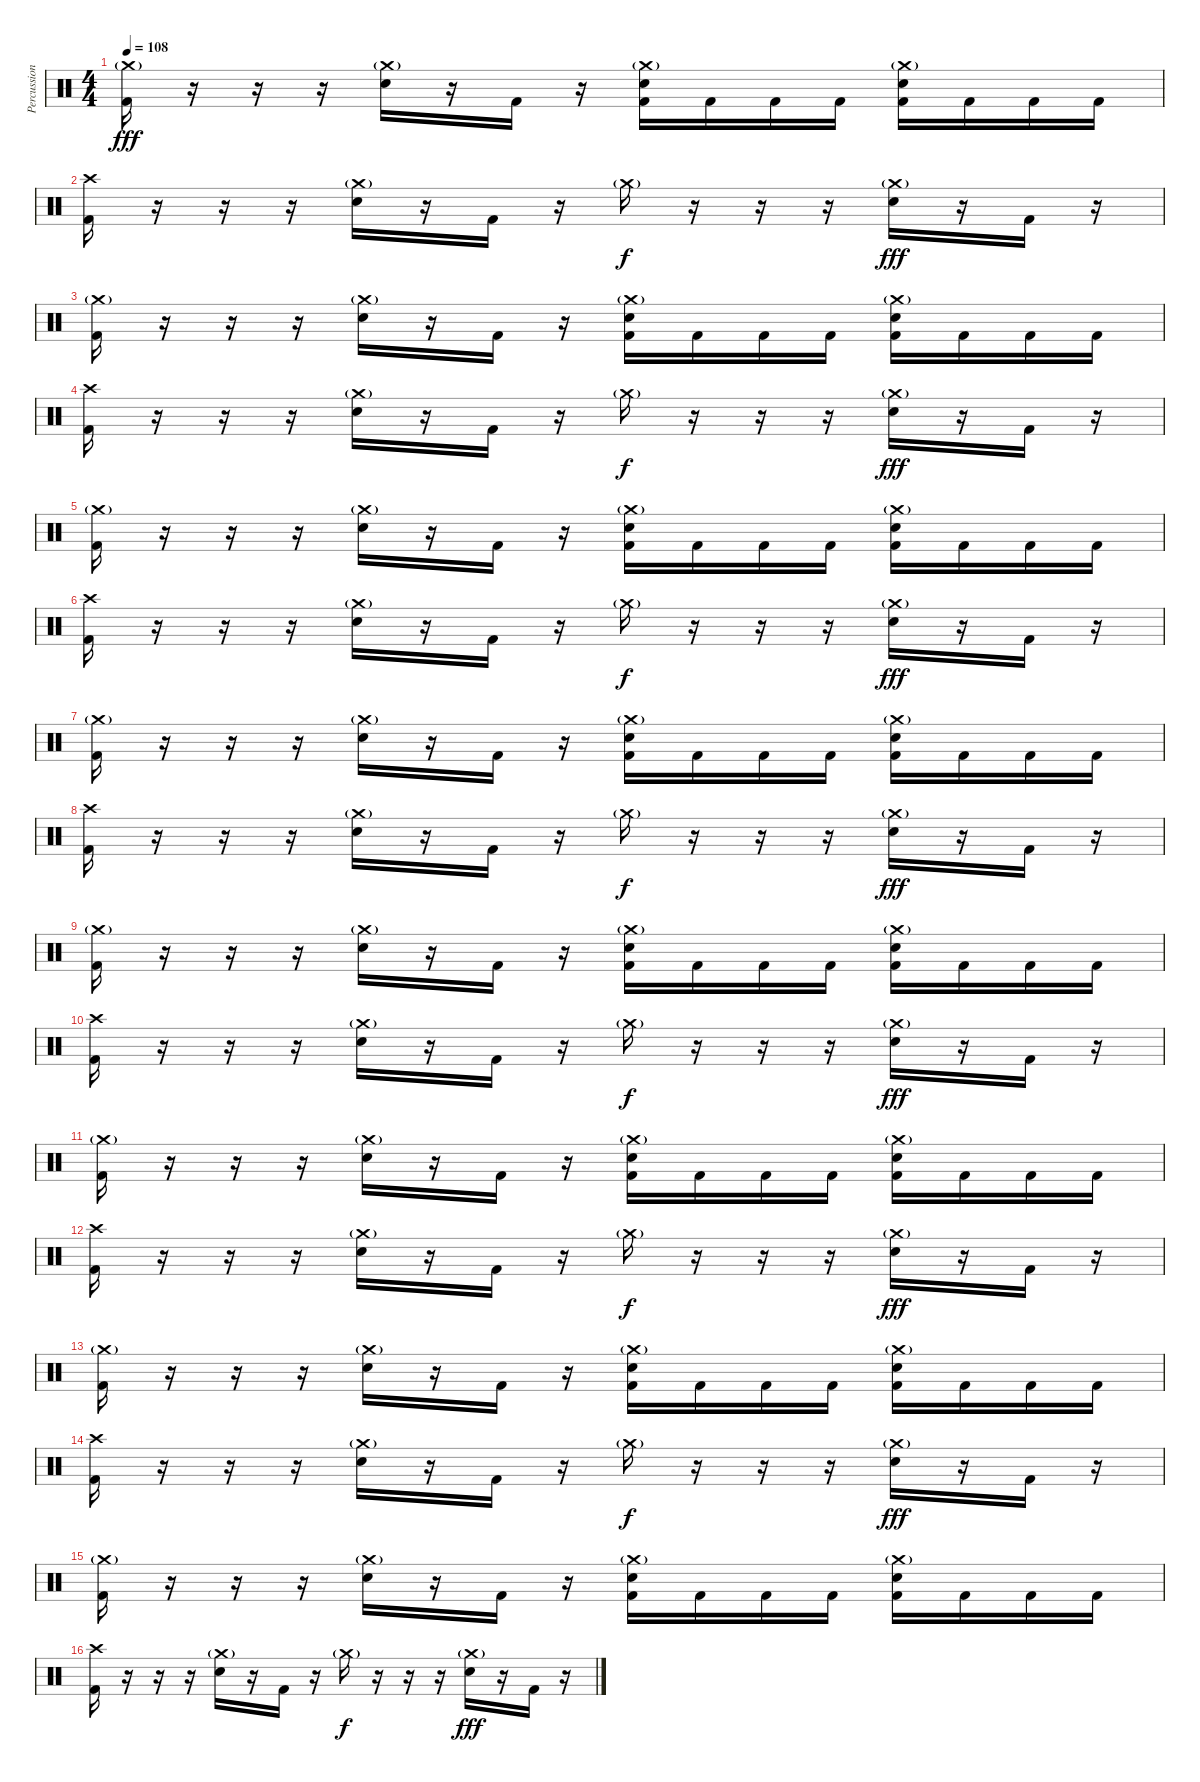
\track ("Percussion" "Percussion") {instrument percussion}
\staff {score}
\articulation defaults
\ts (4 4)
\tempo 108
\clef neutral
\ks c
("Crash medium (hit)"{g} "Kick (hit) 2").16{dy fff} r.16 r.16 r.16 ("Crash medium (hit)"{g} "Electric Snare (hit)").16 r.16 "Kick (hit) 2".16 r.16 ("Crash medium (hit)"{g} "Electric Snare (hit)" "Kick (hit) 2").16 "Kick (hit) 2".16 "Kick (hit) 2".16 "Kick (hit) 2".16 ("Crash medium (hit)"{g} "Electric Snare (hit)" "Kick (hit) 2").16 "Kick (hit) 2".16 "Kick (hit) 2".16 "Kick (hit) 2".16 |
("Crash high (hit)" "Kick (hit) 2").16 r.16 r.16 r.16 ("Crash medium (hit)"{g} "Electric Snare (hit)").16 r.16 "Kick (hit) 2".16 r.16 "Crash medium (hit)"{g}.16{dy f} r.16 r.16 r.16 ("Crash medium (hit)"{g} "Electric Snare (hit)").16{dy fff} r.16 "Kick (hit) 2".16 r.16 |
("Crash medium (hit)"{g} "Kick (hit) 2").16 r.16 r.16 r.16 ("Crash medium (hit)"{g} "Electric Snare (hit)").16 r.16 "Kick (hit) 2".16 r.16 ("Crash medium (hit)"{g} "Electric Snare (hit)" "Kick (hit) 2").16 "Kick (hit) 2".16 "Kick (hit) 2".16 "Kick (hit) 2".16 ("Crash medium (hit)"{g} "Electric Snare (hit)" "Kick (hit) 2").16 "Kick (hit) 2".16 "Kick (hit) 2".16 "Kick (hit) 2".16 |
("Crash high (hit)" "Kick (hit) 2").16 r.16 r.16 r.16 ("Crash medium (hit)"{g} "Electric Snare (hit)").16 r.16 "Kick (hit) 2".16 r.16 "Crash medium (hit)"{g}.16{dy f} r.16 r.16 r.16 ("Crash medium (hit)"{g} "Electric Snare (hit)").16{dy fff} r.16 "Kick (hit) 2".16 r.16 |
("Crash medium (hit)"{g} "Kick (hit) 2").16 r.16 r.16 r.16 ("Crash medium (hit)"{g} "Electric Snare (hit)").16 r.16 "Kick (hit) 2".16 r.16 ("Crash medium (hit)"{g} "Electric Snare (hit)" "Kick (hit) 2").16 "Kick (hit) 2".16 "Kick (hit) 2".16 "Kick (hit) 2".16 ("Crash medium (hit)"{g} "Electric Snare (hit)" "Kick (hit) 2").16 "Kick (hit) 2".16 "Kick (hit) 2".16 "Kick (hit) 2".16 |
("Crash high (hit)" "Kick (hit) 2").16 r.16 r.16 r.16 ("Crash medium (hit)"{g} "Electric Snare (hit)").16 r.16 "Kick (hit) 2".16 r.16 "Crash medium (hit)"{g}.16{dy f} r.16 r.16 r.16 ("Crash medium (hit)"{g} "Electric Snare (hit)").16{dy fff} r.16 "Kick (hit) 2".16 r.16 |
("Crash medium (hit)"{g} "Kick (hit) 2").16 r.16 r.16 r.16 ("Crash medium (hit)"{g} "Electric Snare (hit)").16 r.16 "Kick (hit) 2".16 r.16 ("Crash medium (hit)"{g} "Electric Snare (hit)" "Kick (hit) 2").16 "Kick (hit) 2".16 "Kick (hit) 2".16 "Kick (hit) 2".16 ("Crash medium (hit)"{g} "Electric Snare (hit)" "Kick (hit) 2").16 "Kick (hit) 2".16 "Kick (hit) 2".16 "Kick (hit) 2".16 |
("Crash high (hit)" "Kick (hit) 2").16 r.16 r.16 r.16 ("Crash medium (hit)"{g} "Electric Snare (hit)").16 r.16 "Kick (hit) 2".16 r.16 "Crash medium (hit)"{g}.16{dy f} r.16 r.16 r.16 ("Crash medium (hit)"{g} "Electric Snare (hit)").16{dy fff} r.16 "Kick (hit) 2".16 r.16 |
("Crash medium (hit)"{g} "Kick (hit) 2").16 r.16 r.16 r.16 ("Crash medium (hit)"{g} "Electric Snare (hit)").16 r.16 "Kick (hit) 2".16 r.16 ("Crash medium (hit)"{g} "Electric Snare (hit)" "Kick (hit) 2").16 "Kick (hit) 2".16 "Kick (hit) 2".16 "Kick (hit) 2".16 ("Crash medium (hit)"{g} "Electric Snare (hit)" "Kick (hit) 2").16 "Kick (hit) 2".16 "Kick (hit) 2".16 "Kick (hit) 2".16 |
("Crash high (hit)" "Kick (hit) 2").16 r.16 r.16 r.16 ("Crash medium (hit)"{g} "Electric Snare (hit)").16 r.16 "Kick (hit) 2".16 r.16 "Crash medium (hit)"{g}.16{dy f} r.16 r.16 r.16 ("Crash medium (hit)"{g} "Electric Snare (hit)").16{dy fff} r.16 "Kick (hit) 2".16 r.16 |
("Crash medium (hit)"{g} "Kick (hit) 2").16 r.16 r.16 r.16 ("Crash medium (hit)"{g} "Electric Snare (hit)").16 r.16 "Kick (hit) 2".16 r.16 ("Crash medium (hit)"{g} "Electric Snare (hit)" "Kick (hit) 2").16 "Kick (hit) 2".16 "Kick (hit) 2".16 "Kick (hit) 2".16 ("Crash medium (hit)"{g} "Electric Snare (hit)" "Kick (hit) 2").16 "Kick (hit) 2".16 "Kick (hit) 2".16 "Kick (hit) 2".16 |
("Crash high (hit)" "Kick (hit) 2").16 r.16 r.16 r.16 ("Crash medium (hit)"{g} "Electric Snare (hit)").16 r.16 "Kick (hit) 2".16 r.16 "Crash medium (hit)"{g}.16{dy f} r.16 r.16 r.16 ("Crash medium (hit)"{g} "Electric Snare (hit)").16{dy fff} r.16 "Kick (hit) 2".16 r.16 |
("Crash medium (hit)"{g} "Kick (hit) 2").16 r.16 r.16 r.16 ("Crash medium (hit)"{g} "Electric Snare (hit)").16 r.16 "Kick (hit) 2".16 r.16 ("Crash medium (hit)"{g} "Electric Snare (hit)" "Kick (hit) 2").16 "Kick (hit) 2".16 "Kick (hit) 2".16 "Kick (hit) 2".16 ("Crash medium (hit)"{g} "Electric Snare (hit)" "Kick (hit) 2").16 "Kick (hit) 2".16 "Kick (hit) 2".16 "Kick (hit) 2".16 |
("Crash high (hit)" "Kick (hit) 2").16 r.16 r.16 r.16 ("Crash medium (hit)"{g} "Electric Snare (hit)").16 r.16 "Kick (hit) 2".16 r.16 "Crash medium (hit)"{g}.16{dy f} r.16 r.16 r.16 ("Crash medium (hit)"{g} "Electric Snare (hit)").16{dy fff} r.16 "Kick (hit) 2".16 r.16 |
("Crash medium (hit)"{g} "Kick (hit) 2").16 r.16 r.16 r.16 ("Crash medium (hit)"{g} "Electric Snare (hit)").16 r.16 "Kick (hit) 2".16 r.16 ("Crash medium (hit)"{g} "Electric Snare (hit)" "Kick (hit) 2").16 "Kick (hit) 2".16 "Kick (hit) 2".16 "Kick (hit) 2".16 ("Crash medium (hit)"{g} "Electric Snare (hit)" "Kick (hit) 2").16 "Kick (hit) 2".16 "Kick (hit) 2".16 "Kick (hit) 2".16 |
("Crash high (hit)" "Kick (hit) 2").16 r.16 r.16 r.16 ("Crash medium (hit)"{g} "Electric Snare (hit)").16 r.16 "Kick (hit) 2".16 r.16 "Crash medium (hit)"{g}.16{dy f} r.16 r.16 r.16 ("Crash medium (hit)"{g} "Electric Snare (hit)").16{dy fff} r.16 "Kick (hit) 2".16 r.16
